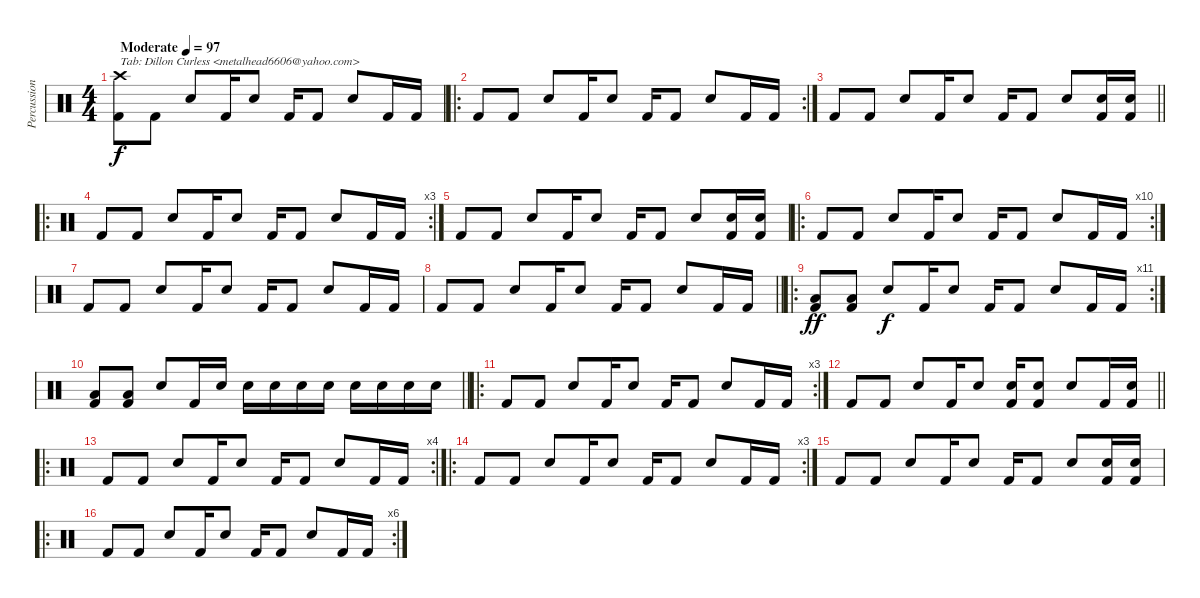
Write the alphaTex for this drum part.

\track ("Percussion" "Percussion") {instrument percussion}
\staff {score}
\articulation defaults
\ts (4 4)
\tempo (97 "Moderate")
\clef neutral
\ks c
("Crash high (hit)" "Kick (hit) 2").8{txt "Tab: Dillon Curless <metalhead6606@yahoo.com>" dy f} "Kick (hit) 2".8 "Snare (hit) 2".8 "Kick (hit) 2".16 "Snare (hit) 2".8 "Kick (hit) 2".16 "Kick (hit) 2".8 "Snare (hit) 2".8 "Kick (hit) 2".16 "Kick (hit) 2".16 |
\ro
\rc 2 "Kick (hit) 2".8 "Kick (hit) 2".8 "Snare (hit) 2".8 "Kick (hit) 2".16 "Snare (hit) 2".8 "Kick (hit) 2".16 "Kick (hit) 2".8 "Snare (hit) 2".8 "Kick (hit) 2".16 "Kick (hit) 2".16
|
\barLineRight lightlight "Kick (hit) 2".8 "Kick (hit) 2".8 "Snare (hit) 2".8 "Kick (hit) 2".16 "Snare (hit) 2".8 "Kick (hit) 2".16 "Kick (hit) 2".8 "Snare (hit) 2".8
("Snare (hit) 2" "Kick (hit) 2").16 ("Snare (hit) 2" "Kick (hit) 2").16 |
\ro
\rc 3 "Kick (hit) 2".8 "Kick (hit) 2".8 "Snare (hit) 2".8 "Kick (hit) 2".16 "Snare (hit) 2".8 "Kick (hit) 2".16 "Kick (hit) 2".8 "Snare (hit) 2".8 "Kick (hit) 2".16 "Kick (hit) 2".16
|
"Kick (hit) 2".8 "Kick (hit) 2".8 "Snare (hit) 2".8 "Kick (hit) 2".16 "Snare (hit) 2".8 "Kick (hit) 2".16 "Kick (hit) 2".8 "Snare (hit) 2".8 ("Snare (hit) 2" "Kick (hit) 2").16 ("Snare (hit) 2" "Kick (hit) 2").16 |
\ro
\rc 10 "Kick (hit) 2".8 "Kick (hit) 2".8 "Snare (hit) 2".8 "Kick (hit) 2".16 "Snare (hit) 2".8 "Kick (hit) 2".16 "Kick (hit) 2".8 "Snare (hit) 2".8 "Kick (hit) 2".16 "Kick (hit) 2".16
|
"Kick (hit) 2".8 "Kick (hit) 2".8 "Snare (hit) 2".8 "Kick (hit) 2".16 "Snare (hit) 2".8 "Kick (hit) 2".16 "Kick (hit) 2".8 "Snare (hit) 2".8 "Kick (hit) 2".16 "Kick (hit) 2".16 |
\barLineRight lightlight "Kick (hit) 2".8 "Kick (hit) 2".8 "Snare (hit) 2".8 "Kick (hit) 2".16 "Snare (hit) 2".8 "Kick (hit) 2".16 "Kick (hit) 2".8 "Snare (hit) 2".8 "Kick (hit) 2".16 "Kick (hit) 2".16
|
\ro
\rc 11
("Low Tom (hit)" "Kick (hit) 2").8{dy ff} ("Low Tom (hit)" "Kick (hit) 2").8 "Snare (hit) 2".8{dy f} "Kick (hit) 2".16 "Snare (hit) 2".8 "Kick (hit) 2".16 "Kick (hit) 2".8 "Snare (hit) 2".8 "Kick (hit) 2".16 "Kick (hit) 2".16 |
\barLineRight lightlight
("Low Tom (hit)" "Kick (hit) 2").8 ("Low Tom (hit)" "Kick (hit) 2").8 "Snare (hit) 2".8 "Kick (hit) 2".16 "Snare (hit) 2".16 "Snare (hit) 2".16 "Snare (hit) 2".16 "Snare (hit) 2".16 "Snare (hit) 2".16 "Snare (hit) 2".16 "Snare (hit) 2".16 "Snare (hit) 2".16 "Snare (hit) 2".16 |
\ro
\rc 3 "Kick (hit) 2".8 "Kick (hit) 2".8 "Snare (hit) 2".8 "Kick (hit) 2".16 "Snare (hit) 2".8 "Kick (hit) 2".16 "Kick (hit) 2".8 "Snare (hit) 2".8 "Kick (hit) 2".16 "Kick (hit) 2".16
|
\barLineRight lightlight "Kick (hit) 2".8 "Kick (hit) 2".8 "Snare (hit) 2".8 "Kick (hit) 2".16 "Snare (hit) 2".8
("Snare (hit) 2" "Kick (hit) 2").16 ("Snare (hit) 2" "Kick (hit) 2").8 "Snare (hit) 2".8 "Kick (hit) 2".16 ("Snare (hit) 2" "Kick (hit) 2").16 |
\ro
\rc 4 "Kick (hit) 2".8 "Kick (hit) 2".8 "Snare (hit) 2".8 "Kick (hit) 2".16 "Snare (hit) 2".8 "Kick (hit) 2".16 "Kick (hit) 2".8 "Snare (hit) 2".8 "Kick (hit) 2".16 "Kick (hit) 2".16
|
\ro
\rc 3 "Kick (hit) 2".8 "Kick (hit) 2".8 "Snare (hit) 2".8 "Kick (hit) 2".16 "Snare (hit) 2".8 "Kick (hit) 2".16 "Kick (hit) 2".8 "Snare (hit) 2".8 "Kick (hit) 2".16 "Kick (hit) 2".16
|
"Kick (hit) 2".8 "Kick (hit) 2".8 "Snare (hit) 2".8 "Kick (hit) 2".16 "Snare (hit) 2".8 "Kick (hit) 2".16 "Kick (hit) 2".8 "Snare (hit) 2".8 ("Snare (hit) 2" "Kick (hit) 2").16 ("Snare (hit) 2" "Kick (hit) 2").16 |
\ro
\rc 6 "Kick (hit) 2".8 "Kick (hit) 2".8 "Snare (hit) 2".8 "Kick (hit) 2".16 "Snare (hit) 2".8 "Kick (hit) 2".16 "Kick (hit) 2".8 "Snare (hit) 2".8 "Kick (hit) 2".16 "Kick (hit) 2".16
